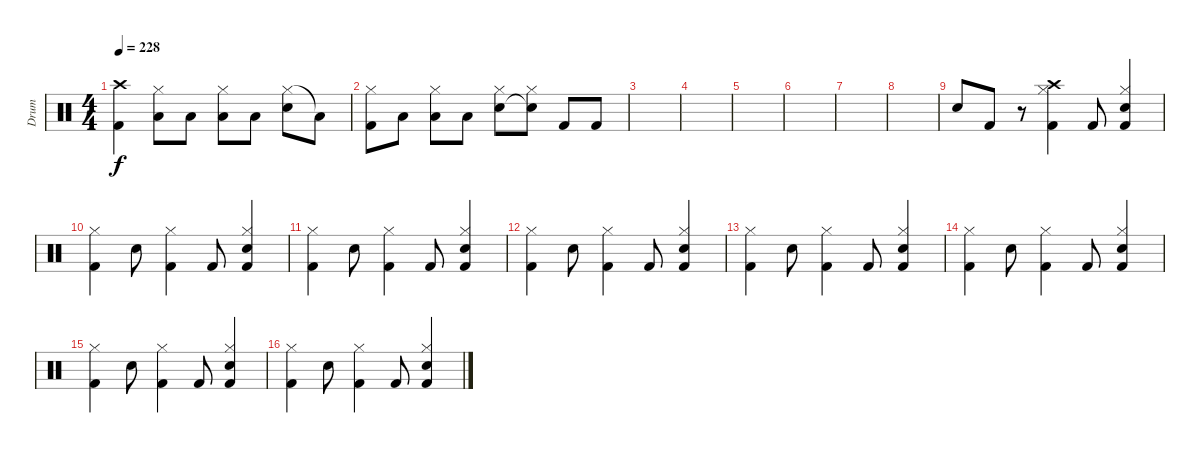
\track ("Drum" "Drum") {instrument percussion}
\staff {score}
\articulation defaults
\ts (4 4)
\tempo 228
\clef neutral
\ks c
("Crash high (hit)" "Kick (hit) 2").4{dy f} ("Hi-Hat (closed)" "Low Floor Tom (hit)").8 "Low Floor Tom (hit)".8 ("Hi-Hat (closed)" "Low Floor Tom (hit)").8 "Low Floor Tom (hit)".8 ("Hi-Hat (closed)" "Snare (hit) 2").8 "Low Floor Tom (hit)"{t}.8 |
("Hi-Hat (closed)" "Kick (hit) 2").8 "Low Floor Tom (hit)".8 ("Hi-Hat (closed)" "Low Floor Tom (hit)").8 "Low Floor Tom (hit)".8 ("Hi-Hat (closed)" "Snare (hit) 2").8 ("Hi-Hat (closed)" "Snare (hit) 2"{t}).8 "Kick (hit) 2".8 "Kick (hit) 2".8 |
|
|
|
|
|
|
"Snare (hit) 2".8 "Kick (hit) 2".8 r.8 ("Hi-Hat (closed)" "Crash high (hit)" "Kick (hit) 2").4 "Kick (hit) 2".8 ("Hi-Hat (closed)" "Snare (hit) 2" "Kick (hit) 2").4 |
("Hi-Hat (closed)" "Kick (hit) 2").4 "Snare (hit) 2".8 ("Hi-Hat (closed)" "Kick (hit) 2").4 "Kick (hit) 2".8 ("Hi-Hat (closed)" "Snare (hit) 2" "Kick (hit) 2").4 |
("Hi-Hat (closed)" "Kick (hit) 2").4 "Snare (hit) 2".8 ("Hi-Hat (closed)" "Kick (hit) 2").4 "Kick (hit) 2".8 ("Hi-Hat (closed)" "Snare (hit) 2" "Kick (hit) 2").4 |
("Hi-Hat (closed)" "Kick (hit) 2").4 "Snare (hit) 2".8 ("Hi-Hat (closed)" "Kick (hit) 2").4 "Kick (hit) 2".8 ("Hi-Hat (closed)" "Snare (hit) 2" "Kick (hit) 2").4 |
("Hi-Hat (closed)" "Kick (hit) 2").4 "Snare (hit) 2".8 ("Hi-Hat (closed)" "Kick (hit) 2").4 "Kick (hit) 2".8 ("Hi-Hat (closed)" "Snare (hit) 2" "Kick (hit) 2").4 |
("Hi-Hat (closed)" "Kick (hit) 2").4 "Snare (hit) 2".8 ("Hi-Hat (closed)" "Kick (hit) 2").4 "Kick (hit) 2".8 ("Hi-Hat (closed)" "Snare (hit) 2" "Kick (hit) 2").4 |
("Hi-Hat (closed)" "Kick (hit) 2").4 "Snare (hit) 2".8 ("Hi-Hat (closed)" "Kick (hit) 2").4 "Kick (hit) 2".8 ("Hi-Hat (closed)" "Snare (hit) 2" "Kick (hit) 2").4 |
("Hi-Hat (closed)" "Kick (hit) 2").4 "Snare (hit) 2".8 ("Hi-Hat (closed)" "Kick (hit) 2").4 "Kick (hit) 2".8 ("Hi-Hat (closed)" "Snare (hit) 2" "Kick (hit) 2").4
